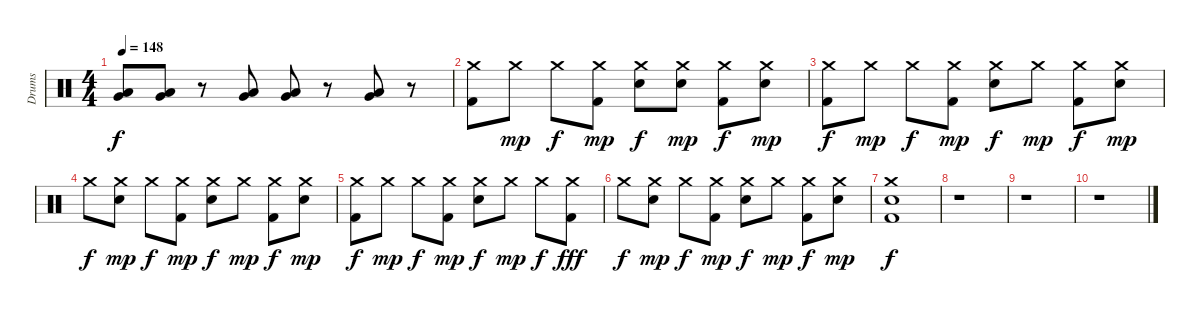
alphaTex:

\track ("Drums" "Drums") {instrument percussion}
\staff {score}
\articulation defaults
\ts (4 4)
\tempo 148
\clef neutral
\ks c
("Low Tom (hit)" "Very Low Tom (hit)").8{dy f} ("Low Tom (hit)" "Very Low Tom (hit)").8 r.8 ("Low Tom (hit)" "Very Low Tom (hit)").8 ("Low Tom (hit)" "Very Low Tom (hit)").8 r.8 ("Low Tom (hit)" "Very Low Tom (hit)").8 r.8 |
("Crash medium (hit)" "Kick (hit) 2").8 "Crash medium (hit)".8{dy mp} "Crash medium (hit)".8{dy f} ("Crash medium (hit)" "Kick (hit) 2").8{dy mp} ("Crash medium (hit)" "Snare (hit) 2").8{dy f} ("Crash medium (hit)" "Snare (hit) 2").8{dy mp} ("Crash medium (hit)" "Kick (hit) 2").8{dy f} ("Crash medium (hit)" "Snare (hit) 2").8{dy mp} |
("Crash medium (hit)" "Kick (hit) 2").8{dy f} "Crash medium (hit)".8{dy mp} "Crash medium (hit)".8{dy f} ("Crash medium (hit)" "Kick (hit) 2").8{dy mp} ("Crash medium (hit)" "Snare (hit) 2").8{dy f} "Crash medium (hit)".8{dy mp} ("Crash medium (hit)" "Kick (hit) 2").8{dy f} ("Crash medium (hit)" "Snare (hit) 2").8{dy mp} |
"Crash medium (hit)".8{dy f} ("Crash medium (hit)" "Snare (hit) 2").8{dy mp} "Crash medium (hit)".8{dy f} ("Crash medium (hit)" "Kick (hit) 2").8{dy mp} ("Crash medium (hit)" "Snare (hit) 2").8{dy f} "Crash medium (hit)".8{dy mp} ("Crash medium (hit)" "Kick (hit) 2").8{dy f} ("Crash medium (hit)" "Snare (hit) 2").8{dy mp} |
("Crash medium (hit)" "Kick (hit) 2").8{dy f} "Crash medium (hit)".8{dy mp} "Crash medium (hit)".8{dy f} ("Crash medium (hit)" "Kick (hit) 2").8{dy mp} ("Crash medium (hit)" "Snare (hit) 2").8{dy f} "Crash medium (hit)".8{dy mp} "Crash medium (hit)".8{dy f} ("Crash medium (hit)" "Kick (hit) 2").8{dy fff} |
"Crash medium (hit)".8{dy f} ("Crash medium (hit)" "Snare (hit) 2").8{dy mp} "Crash medium (hit)".8{dy f} ("Crash medium (hit)" "Kick (hit) 2").8{dy mp} ("Crash medium (hit)" "Snare (hit) 2").8{dy f} "Crash medium (hit)".8{dy mp} ("Crash medium (hit)" "Kick (hit) 2").8{dy f} ("Crash medium (hit)" "Snare (hit) 2").8{dy mp} |
("Crash medium (hit)" "Snare (hit) 2" "Kick (hit) 2").1{dy f} |
r.1 |
r.1 |
r.1
